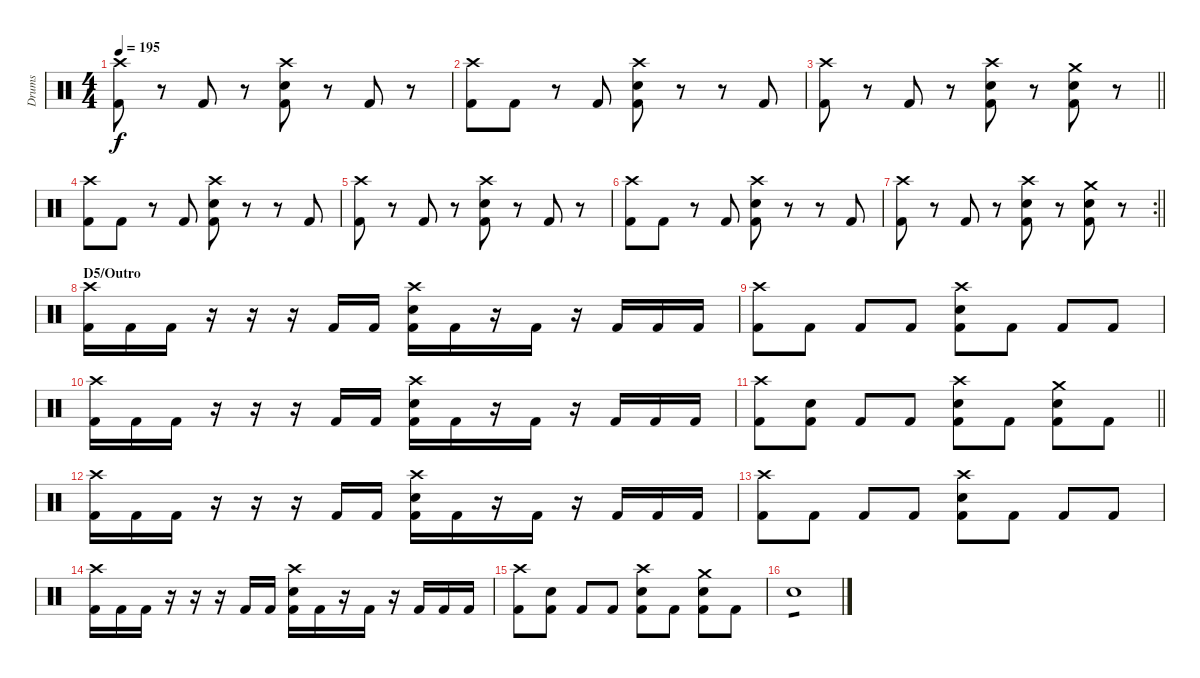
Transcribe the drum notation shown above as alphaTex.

\track ("Drums" "Drums") {instrument percussion}
\staff {score}
\articulation defaults
\ts (4 4)
\tempo 195
\clef neutral
\ks c
("Crash high (hit)" "Kick (hit) 2").8{dy f} r.8 "Kick (hit) 2".8 r.8 ("Crash high (hit)" "Snare (hit) 2" "Kick (hit) 2").8 r.8 "Kick (hit) 2".8 r.8 |
("Crash high (hit)" "Kick (hit) 2").8 "Kick (hit) 2".8 r.8 "Kick (hit) 2".8 ("Crash high (hit)" "Snare (hit) 2" "Kick (hit) 2").8 r.8 r.8 "Kick (hit) 2".8 |
\barLineRight lightlight
("Crash high (hit)" "Kick (hit) 2").8 r.8 "Kick (hit) 2".8 r.8 ("Crash high (hit)" "Snare (hit) 2" "Kick (hit) 2").8 r.8 ("Crash medium (hit)" "Snare (hit) 2" "Kick (hit) 2").8 r.8 |
("Crash high (hit)" "Kick (hit) 2").8 "Kick (hit) 2".8 r.8 "Kick (hit) 2".8 ("Crash high (hit)" "Snare (hit) 2" "Kick (hit) 2").8 r.8 r.8 "Kick (hit) 2".8 |
("Crash high (hit)" "Kick (hit) 2").8 r.8 "Kick (hit) 2".8 r.8 ("Crash high (hit)" "Snare (hit) 2" "Kick (hit) 2").8 r.8 "Kick (hit) 2".8 r.8 |
("Crash high (hit)" "Kick (hit) 2").8 "Kick (hit) 2".8 r.8 "Kick (hit) 2".8 ("Crash high (hit)" "Snare (hit) 2" "Kick (hit) 2").8 r.8 r.8 "Kick (hit) 2".8 |
\rc 2
\barLineRight lightlight
("Crash high (hit)" "Kick (hit) 2").8 r.8 "Kick (hit) 2".8 r.8 ("Crash high (hit)" "Snare (hit) 2" "Kick (hit) 2").8 r.8 ("Crash medium (hit)" "Snare (hit) 2" "Kick (hit) 2").8 r.8 |
\section ("" "D5/Outro")
("Crash high (hit)" "Kick (hit) 2").16 "Kick (hit) 2".16 "Kick (hit) 2".16 r.16 r.16 r.16 "Kick (hit) 2".16 "Kick (hit) 2".16 ("Crash high (hit)" "Snare (hit) 2" "Kick (hit) 2").16 "Kick (hit) 2".16 r.16 "Kick (hit) 2".16 r.16 "Kick (hit) 2".16 "Kick (hit) 2".16 "Kick (hit) 2".16 |
("Crash high (hit)" "Kick (hit) 2").8 "Kick (hit) 2".8 "Kick (hit) 2".8 "Kick (hit) 2".8 ("Crash high (hit)" "Snare (hit) 2" "Kick (hit) 2").8 "Kick (hit) 2".8 "Kick (hit) 2".8 "Kick (hit) 2".8 |
("Crash high (hit)" "Kick (hit) 2").16 "Kick (hit) 2".16 "Kick (hit) 2".16 r.16 r.16 r.16 "Kick (hit) 2".16 "Kick (hit) 2".16 ("Crash high (hit)" "Snare (hit) 2" "Kick (hit) 2").16 "Kick (hit) 2".16 r.16 "Kick (hit) 2".16 r.16 "Kick (hit) 2".16 "Kick (hit) 2".16 "Kick (hit) 2".16 |
\barLineRight lightlight
("Crash high (hit)" "Kick (hit) 2").8 ("Snare (hit) 2" "Kick (hit) 2").8 "Kick (hit) 2".8 "Kick (hit) 2".8 ("Crash high (hit)" "Snare (hit) 2" "Kick (hit) 2").8 "Kick (hit) 2".8 ("Crash medium (hit)" "Snare (hit) 2" "Kick (hit) 2").8 "Kick (hit) 2".8 |
("Crash high (hit)" "Kick (hit) 2").16 "Kick (hit) 2".16 "Kick (hit) 2".16 r.16 r.16 r.16 "Kick (hit) 2".16 "Kick (hit) 2".16 ("Crash high (hit)" "Snare (hit) 2" "Kick (hit) 2").16 "Kick (hit) 2".16 r.16 "Kick (hit) 2".16 r.16 "Kick (hit) 2".16 "Kick (hit) 2".16 "Kick (hit) 2".16 |
("Crash high (hit)" "Kick (hit) 2").8 "Kick (hit) 2".8 "Kick (hit) 2".8 "Kick (hit) 2".8 ("Crash high (hit)" "Snare (hit) 2" "Kick (hit) 2").8 "Kick (hit) 2".8 "Kick (hit) 2".8 "Kick (hit) 2".8 |
("Crash high (hit)" "Kick (hit) 2").16 "Kick (hit) 2".16 "Kick (hit) 2".16 r.16 r.16 r.16 "Kick (hit) 2".16 "Kick (hit) 2".16 ("Crash high (hit)" "Snare (hit) 2" "Kick (hit) 2").16 "Kick (hit) 2".16 r.16 "Kick (hit) 2".16 r.16 "Kick (hit) 2".16 "Kick (hit) 2".16 "Kick (hit) 2".16 |
("Crash high (hit)" "Kick (hit) 2").8 ("Snare (hit) 2" "Kick (hit) 2").8 "Kick (hit) 2".8 "Kick (hit) 2".8 ("Crash high (hit)" "Snare (hit) 2" "Kick (hit) 2").8 "Kick (hit) 2".8 ("Crash medium (hit)" "Snare (hit) 2" "Kick (hit) 2").8 "Kick (hit) 2".8 |
"Snare (hit) 2".1{tp 1}
